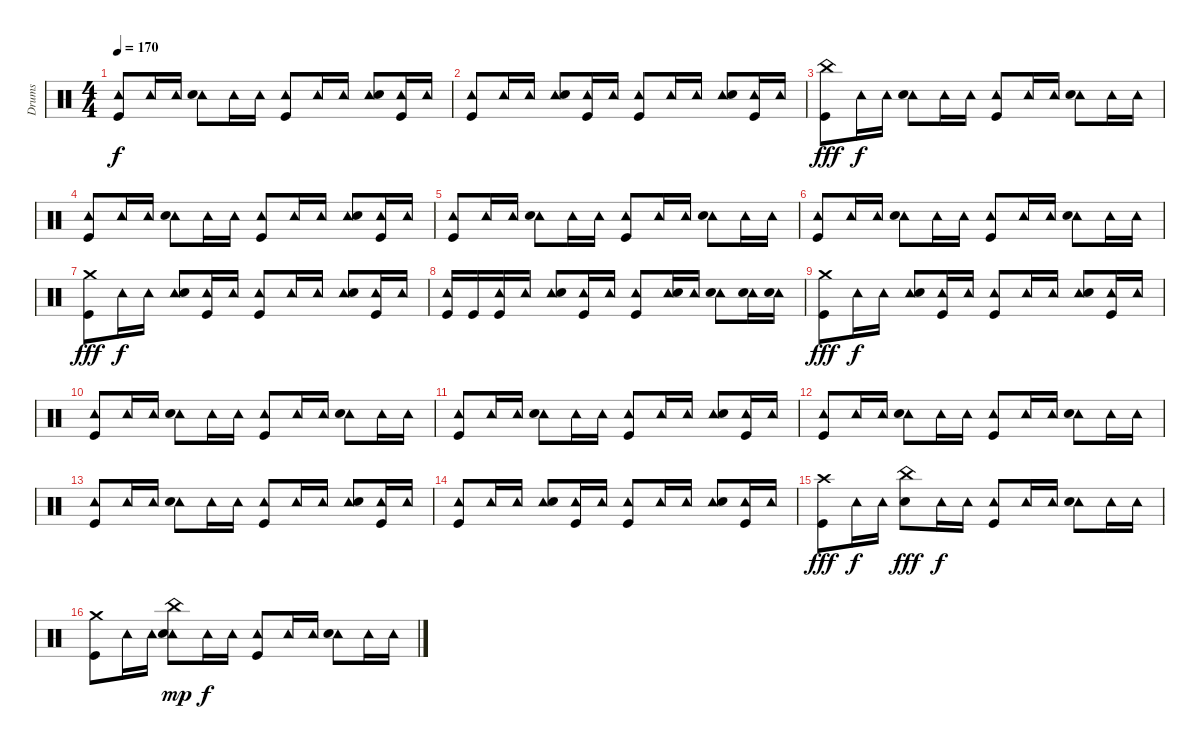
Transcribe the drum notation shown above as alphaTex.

\track ("Drums" "Drums") {instrument percussion}
\staff {score}
\articulation defaults
\ts (4 4)
\tempo 170
\clef neutral
\ks c
("Tambourine (hit)" "Kick (hit)").8{dy f} "Tambourine (hit)".16 "Tambourine (hit)".16 ("Tambourine (hit)" "Electric Snare (hit)").8 "Tambourine (hit)".16 "Tambourine (hit)".16 ("Tambourine (hit)" "Kick (hit)").8 "Tambourine (hit)".16 "Tambourine (hit)".16 ("Tambourine (hit)" "Electric Snare (hit)").8 ("Tambourine (hit)" "Kick (hit)").16 "Tambourine (hit)".16 |
("Tambourine (hit)" "Kick (hit)").8 "Tambourine (hit)".16 "Tambourine (hit)".16 ("Tambourine (hit)" "Electric Snare (hit)").8 ("Tambourine (hit)" "Kick (hit)").16 "Tambourine (hit)".16 ("Tambourine (hit)" "Kick (hit)").8 "Tambourine (hit)".16 "Tambourine (hit)".16 ("Tambourine (hit)" "Electric Snare (hit)").8 ("Tambourine (hit)" "Kick (hit)").16 "Tambourine (hit)".16 |
("China (hit)" "Kick (hit)").8{dy fff} "Tambourine (hit)".16{dy f} "Tambourine (hit)".16 ("Tambourine (hit)" "Electric Snare (hit)").8 "Tambourine (hit)".16 "Tambourine (hit)".16 ("Tambourine (hit)" "Kick (hit)").8 "Tambourine (hit)".16 "Tambourine (hit)".16 ("Tambourine (hit)" "Electric Snare (hit)").8 "Tambourine (hit)".16 "Tambourine (hit)".16 |
("Tambourine (hit)" "Kick (hit)").8 "Tambourine (hit)".16 "Tambourine (hit)".16 ("Tambourine (hit)" "Electric Snare (hit)").8 "Tambourine (hit)".16 "Tambourine (hit)".16 ("Tambourine (hit)" "Kick (hit)").8 "Tambourine (hit)".16 "Tambourine (hit)".16 ("Tambourine (hit)" "Electric Snare (hit)").8 ("Tambourine (hit)" "Kick (hit)").16 "Tambourine (hit)".16 |
("Tambourine (hit)" "Kick (hit)").8 "Tambourine (hit)".16 "Tambourine (hit)".16 ("Tambourine (hit)" "Electric Snare (hit)").8 "Tambourine (hit)".16 "Tambourine (hit)".16 ("Tambourine (hit)" "Kick (hit)").8 "Tambourine (hit)".16 "Tambourine (hit)".16 ("Tambourine (hit)" "Electric Snare (hit)").8 "Tambourine (hit)".16 "Tambourine (hit)".16 |
("Tambourine (hit)" "Kick (hit)").8 "Tambourine (hit)".16 "Tambourine (hit)".16 ("Tambourine (hit)" "Electric Snare (hit)").8 "Tambourine (hit)".16 "Tambourine (hit)".16 ("Tambourine (hit)" "Kick (hit)").8 "Tambourine (hit)".16 "Tambourine (hit)".16 ("Tambourine (hit)" "Electric Snare (hit)").8 "Tambourine (hit)".16 "Tambourine (hit)".16 |
("Crash medium (hit)" "Kick (hit)").8{dy fff} "Tambourine (hit)".16{dy f} "Tambourine (hit)".16 ("Tambourine (hit)" "Electric Snare (hit)").8 ("Tambourine (hit)" "Kick (hit)").16 "Tambourine (hit)".16 ("Tambourine (hit)" "Kick (hit)").8 "Tambourine (hit)".16 "Tambourine (hit)".16 ("Tambourine (hit)" "Electric Snare (hit)").8 ("Tambourine (hit)" "Kick (hit)").16 "Tambourine (hit)".16 |
("Tambourine (hit)" "Kick (hit)").16 "Kick (hit)".16 ("Tambourine (hit)" "Kick (hit)").16 "Tambourine (hit)".16 ("Tambourine (hit)" "Electric Snare (hit)").8 ("Tambourine (hit)" "Kick (hit)").16 "Tambourine (hit)".16 ("Tambourine (hit)" "Kick (hit)").8 ("Tambourine (hit)" "Electric Snare (hit)").16 "Tambourine (hit)".16 ("Tambourine (hit)" "Electric Snare (hit)").8 ("Tambourine (hit)" "Electric Snare (hit)").16 ("Tambourine (hit)" "Electric Snare (hit)").16 |
("Crash medium (hit)" "Kick (hit)").8{dy fff} "Tambourine (hit)".16{dy f} "Tambourine (hit)".16 ("Tambourine (hit)" "Electric Snare (hit)").8 ("Tambourine (hit)" "Kick (hit)").16 "Tambourine (hit)".16 ("Tambourine (hit)" "Kick (hit)").8 "Tambourine (hit)".16 "Tambourine (hit)".16 ("Tambourine (hit)" "Electric Snare (hit)").8 ("Tambourine (hit)" "Kick (hit)").16 "Tambourine (hit)".16 |
("Tambourine (hit)" "Kick (hit)").8 "Tambourine (hit)".16 "Tambourine (hit)".16 ("Tambourine (hit)" "Electric Snare (hit)").8 "Tambourine (hit)".16 "Tambourine (hit)".16 ("Tambourine (hit)" "Kick (hit)").8 "Tambourine (hit)".16 "Tambourine (hit)".16 ("Tambourine (hit)" "Electric Snare (hit)").8 "Tambourine (hit)".16 "Tambourine (hit)".16 |
("Tambourine (hit)" "Kick (hit)").8 "Tambourine (hit)".16 "Tambourine (hit)".16 ("Tambourine (hit)" "Electric Snare (hit)").8 "Tambourine (hit)".16 "Tambourine (hit)".16 ("Tambourine (hit)" "Kick (hit)").8 "Tambourine (hit)".16 "Tambourine (hit)".16 ("Tambourine (hit)" "Electric Snare (hit)").8 ("Tambourine (hit)" "Kick (hit)").16 "Tambourine (hit)".16 |
("Tambourine (hit)" "Kick (hit)").8 "Tambourine (hit)".16 "Tambourine (hit)".16 ("Tambourine (hit)" "Electric Snare (hit)").8 "Tambourine (hit)".16 "Tambourine (hit)".16 ("Tambourine (hit)" "Kick (hit)").8 "Tambourine (hit)".16 "Tambourine (hit)".16 ("Tambourine (hit)" "Electric Snare (hit)").8 "Tambourine (hit)".16 "Tambourine (hit)".16 |
("Tambourine (hit)" "Kick (hit)").8 "Tambourine (hit)".16 "Tambourine (hit)".16 ("Tambourine (hit)" "Electric Snare (hit)").8 "Tambourine (hit)".16 "Tambourine (hit)".16 ("Tambourine (hit)" "Kick (hit)").8 "Tambourine (hit)".16 "Tambourine (hit)".16 ("Tambourine (hit)" "Electric Snare (hit)").8 ("Tambourine (hit)" "Kick (hit)").16 "Tambourine (hit)".16 |
("Tambourine (hit)" "Kick (hit)").8 "Tambourine (hit)".16 "Tambourine (hit)".16 ("Tambourine (hit)" "Electric Snare (hit)").8 ("Tambourine (hit)" "Kick (hit)").16 "Tambourine (hit)".16 ("Tambourine (hit)" "Kick (hit)").8 "Tambourine (hit)".16 "Tambourine (hit)".16 ("Tambourine (hit)" "Electric Snare (hit)").8 ("Tambourine (hit)" "Kick (hit)").16 "Tambourine (hit)".16 |
("Crash high (hit)" "Kick (hit)").8{dy fff} "Tambourine (hit)".16{dy f} "Tambourine (hit)".16 ("China (hit)" "Electric Snare (hit)").8{dy fff} "Tambourine (hit)".16{dy f} "Tambourine (hit)".16 ("Tambourine (hit)" "Kick (hit)").8 "Tambourine (hit)".16 "Tambourine (hit)".16 ("Tambourine (hit)" "Electric Snare (hit)").8 "Tambourine (hit)".16 "Tambourine (hit)".16 |
("Crash medium (hit)" "Kick (hit)").8 "Tambourine (hit)".16 "Tambourine (hit)".16 ("China (hit)" "Tambourine (hit)" "Electric Snare (hit)").8{dy mp} "Tambourine (hit)".16{dy f} "Tambourine (hit)".16 ("Tambourine (hit)" "Kick (hit)").8 "Tambourine (hit)".16 "Tambourine (hit)".16 ("Tambourine (hit)" "Electric Snare (hit)").8 "Tambourine (hit)".16 "Tambourine (hit)".16
